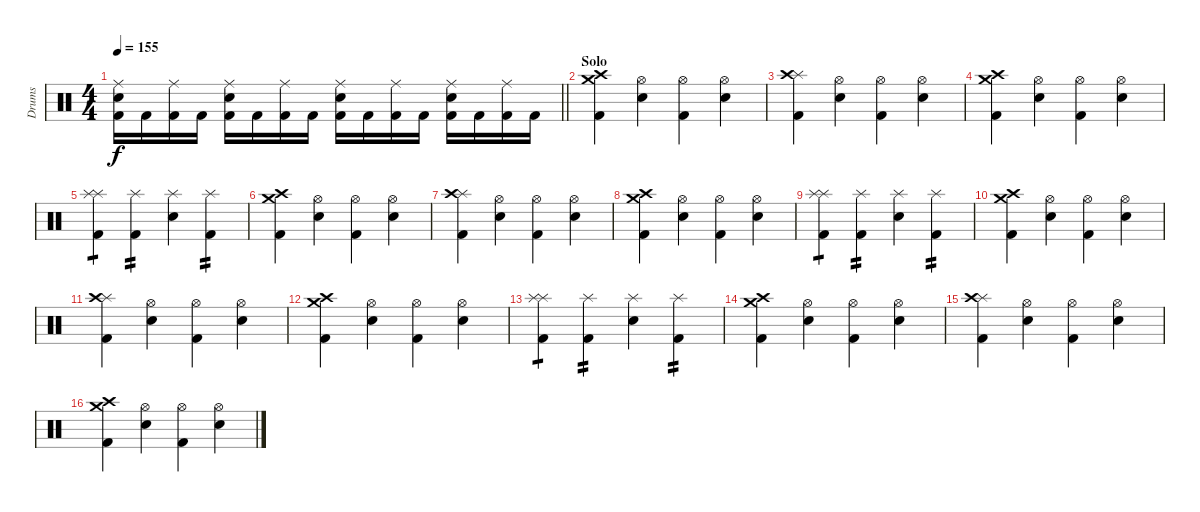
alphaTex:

\track ("Drums" "Drums") {instrument percussion}
\staff {score}
\articulation defaults
\ts (4 4)
\tempo 155
\clef neutral
\barLineRight lightlight
\ks c
("Kick (hit) 2" "Ride (middle)" "Snare (hit) 2").16{dy f} "Kick (hit) 2".16 ("Kick (hit) 2" "Ride (middle)").16 "Kick (hit) 2".16 ("Kick (hit) 2" "Ride (middle)" "Snare (hit) 2").16 "Kick (hit) 2".16 ("Kick (hit) 2" "Ride (middle)").16 "Kick (hit) 2".16 ("Kick (hit) 2" "Ride (middle)" "Snare (hit) 2").16 "Kick (hit) 2".16 ("Kick (hit) 2" "Ride (middle)").16 "Kick (hit) 2".16 ("Kick (hit) 2" "Ride (middle)" "Snare (hit) 2").16 "Kick (hit) 2".16 ("Kick (hit) 2" "Ride (middle)").16 "Kick (hit) 2".16 |
\section ("" "Solo")
("Crash medium (hit)" "Crash high (hit)" "Kick (hit) 2").4 ("Hi-Hat (open)" "Snare (hit) 2").4 ("Hi-Hat (open)" "Kick (hit) 2").4 ("Hi-Hat (open)" "Snare (hit) 2").4 |
("Splash (hit)" "Crash high (hit)" "Kick (hit) 2").4 ("Hi-Hat (open)" "Snare (hit) 2").4 ("Hi-Hat (open)" "Kick (hit) 2").4 ("Hi-Hat (open)" "Snare (hit) 2").4 |
("Crash medium (hit)" "Crash high (hit)" "Kick (hit) 2").4 ("Hi-Hat (open)" "Snare (hit) 2").4 ("Hi-Hat (open)" "Kick (hit) 2").4 ("Hi-Hat (open)" "Snare (hit) 2").4 |
("Kick (hit) 2" "Splash (hit)" "Splash (hit)").4{tp 1} ("Kick (hit) 2" "Splash (hit)").4{tp 2} ("Snare (hit) 2" "Splash (hit)").4 ("Kick (hit) 2" "Splash (hit)").4{tp 2} |
("Crash medium (hit)" "Crash high (hit)" "Kick (hit) 2").4 ("Hi-Hat (open)" "Snare (hit) 2").4 ("Hi-Hat (open)" "Kick (hit) 2").4 ("Hi-Hat (open)" "Snare (hit) 2").4 |
("Splash (hit)" "Crash high (hit)" "Kick (hit) 2").4 ("Hi-Hat (open)" "Snare (hit) 2").4 ("Hi-Hat (open)" "Kick (hit) 2").4 ("Hi-Hat (open)" "Snare (hit) 2").4 |
("Crash medium (hit)" "Crash high (hit)" "Kick (hit) 2").4 ("Hi-Hat (open)" "Snare (hit) 2").4 ("Hi-Hat (open)" "Kick (hit) 2").4 ("Hi-Hat (open)" "Snare (hit) 2").4 |
("Kick (hit) 2" "Splash (hit)" "Splash (hit)").4{tp 1} ("Kick (hit) 2" "Splash (hit)").4{tp 2} ("Snare (hit) 2" "Splash (hit)").4 ("Kick (hit) 2" "Splash (hit)").4{tp 2} |
("Crash medium (hit)" "Crash high (hit)" "Kick (hit) 2").4 ("Hi-Hat (open)" "Snare (hit) 2").4 ("Hi-Hat (open)" "Kick (hit) 2").4 ("Hi-Hat (open)" "Snare (hit) 2").4 |
("Splash (hit)" "Crash high (hit)" "Kick (hit) 2").4 ("Hi-Hat (open)" "Snare (hit) 2").4 ("Hi-Hat (open)" "Kick (hit) 2").4 ("Hi-Hat (open)" "Snare (hit) 2").4 |
("Crash medium (hit)" "Crash high (hit)" "Kick (hit) 2").4 ("Hi-Hat (open)" "Snare (hit) 2").4 ("Hi-Hat (open)" "Kick (hit) 2").4 ("Hi-Hat (open)" "Snare (hit) 2").4 |
("Kick (hit) 2" "Splash (hit)" "Splash (hit)").4{tp 1} ("Kick (hit) 2" "Splash (hit)").4{tp 2} ("Snare (hit) 2" "Splash (hit)").4 ("Kick (hit) 2" "Splash (hit)").4{tp 2} |
("Crash medium (hit)" "Crash high (hit)" "Kick (hit) 2").4 ("Hi-Hat (open)" "Snare (hit) 2").4 ("Hi-Hat (open)" "Kick (hit) 2").4 ("Hi-Hat (open)" "Snare (hit) 2").4 |
("Splash (hit)" "Crash high (hit)" "Kick (hit) 2").4 ("Hi-Hat (open)" "Snare (hit) 2").4 ("Hi-Hat (open)" "Kick (hit) 2").4 ("Hi-Hat (open)" "Snare (hit) 2").4 |
("Crash medium (hit)" "Crash high (hit)" "Kick (hit) 2").4 ("Hi-Hat (open)" "Snare (hit) 2").4 ("Hi-Hat (open)" "Kick (hit) 2").4 ("Hi-Hat (open)" "Snare (hit) 2").4
